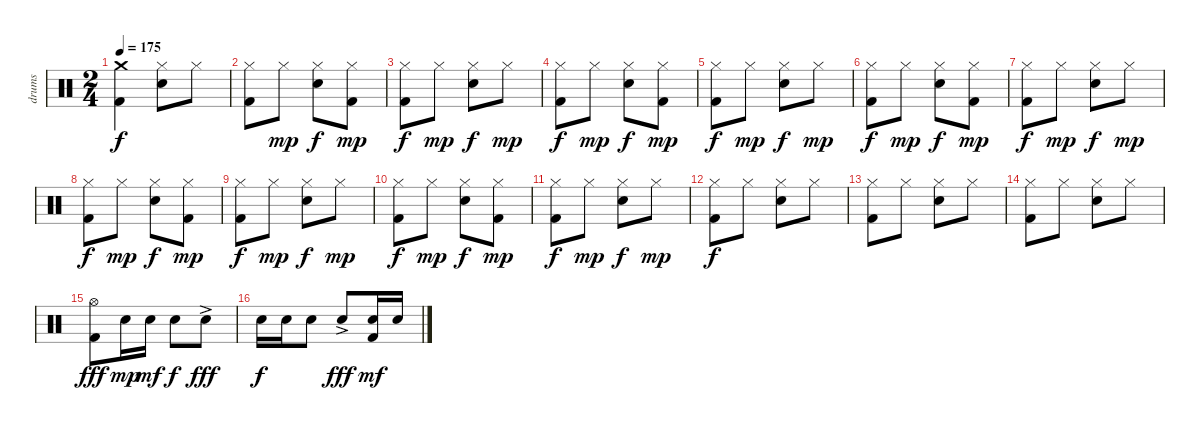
\track ("drums" "drums") {instrument percussion}
\staff {score}
\articulation defaults
\ts (2 4)
\tempo 175
\clef neutral
\ks c
("Crash medium (hit)" "Kick (hit) 2").4{dy f} ("Hi-Hat (closed)" "Snare (hit) 2").8 "Hi-Hat (closed)".8 |
("Hi-Hat (closed)" "Kick (hit) 2").8 "Hi-Hat (closed)".8{dy mp} ("Hi-Hat (closed)" "Snare (hit) 2").8{dy f} ("Hi-Hat (closed)" "Kick (hit) 2").8{dy mp} |
("Hi-Hat (closed)" "Kick (hit) 2").8{dy f} "Hi-Hat (closed)".8{dy mp} ("Hi-Hat (closed)" "Snare (hit) 2").8{dy f} "Hi-Hat (closed)".8{dy mp} |
("Hi-Hat (closed)" "Kick (hit) 2").8{dy f} "Hi-Hat (closed)".8{dy mp} ("Hi-Hat (closed)" "Snare (hit) 2").8{dy f} ("Hi-Hat (closed)" "Kick (hit) 2").8{dy mp} |
("Hi-Hat (closed)" "Kick (hit) 2").8{dy f} "Hi-Hat (closed)".8{dy mp} ("Hi-Hat (closed)" "Snare (hit) 2").8{dy f} "Hi-Hat (closed)".8{dy mp} |
("Hi-Hat (closed)" "Kick (hit) 2").8{dy f} "Hi-Hat (closed)".8{dy mp} ("Hi-Hat (closed)" "Snare (hit) 2").8{dy f} ("Hi-Hat (closed)" "Kick (hit) 2").8{dy mp} |
("Hi-Hat (closed)" "Kick (hit) 2").8{dy f} "Hi-Hat (closed)".8{dy mp} ("Hi-Hat (closed)" "Snare (hit) 2").8{dy f} "Hi-Hat (closed)".8{dy mp} |
("Hi-Hat (closed)" "Kick (hit) 2").8{dy f} "Hi-Hat (closed)".8{dy mp} ("Hi-Hat (closed)" "Snare (hit) 2").8{dy f} ("Hi-Hat (closed)" "Kick (hit) 2").8{dy mp} |
("Hi-Hat (closed)" "Kick (hit) 2").8{dy f} "Hi-Hat (closed)".8{dy mp} ("Hi-Hat (closed)" "Snare (hit) 2").8{dy f} "Hi-Hat (closed)".8{dy mp} |
("Hi-Hat (closed)" "Kick (hit) 2").8{dy f} "Hi-Hat (closed)".8{dy mp} ("Hi-Hat (closed)" "Snare (hit) 2").8{dy f} ("Hi-Hat (closed)" "Kick (hit) 2").8{dy mp} |
("Hi-Hat (closed)" "Kick (hit) 2").8{dy f} "Hi-Hat (closed)".8{dy mp} ("Hi-Hat (closed)" "Snare (hit) 2").8{dy f} "Hi-Hat (closed)".8{dy mp} |
("Hi-Hat (closed)" "Kick (hit) 2").8{dy f} "Hi-Hat (closed)".8 ("Hi-Hat (closed)" "Snare (hit) 2").8 "Hi-Hat (closed)".8 |
("Hi-Hat (closed)" "Kick (hit) 2").8 "Hi-Hat (closed)".8 ("Hi-Hat (closed)" "Snare (hit) 2").8 "Hi-Hat (closed)".8 |
("Hi-Hat (closed)" "Kick (hit) 2").8 "Hi-Hat (closed)".8 ("Hi-Hat (closed)" "Snare (hit) 2").8 "Hi-Hat (closed)".8 |
("Hi-Hat (open)" "Kick (hit) 2").8{dy fff volume 14} "Snare (hit) 2".16{dy mp} "Snare (hit) 2".16{dy mf} "Snare (hit) 2".8{dy f} "Snare (hit) 2"{ac}.8{dy fff} |
"Snare (hit) 2".16{dy f} "Snare (hit) 2".16 "Snare (hit) 2".8 "Snare (hit) 2"{ac}.8{dy fff} ("Snare (hit) 2" "Kick (hit) 2").16{dy mf} "Snare (hit) 2".16
